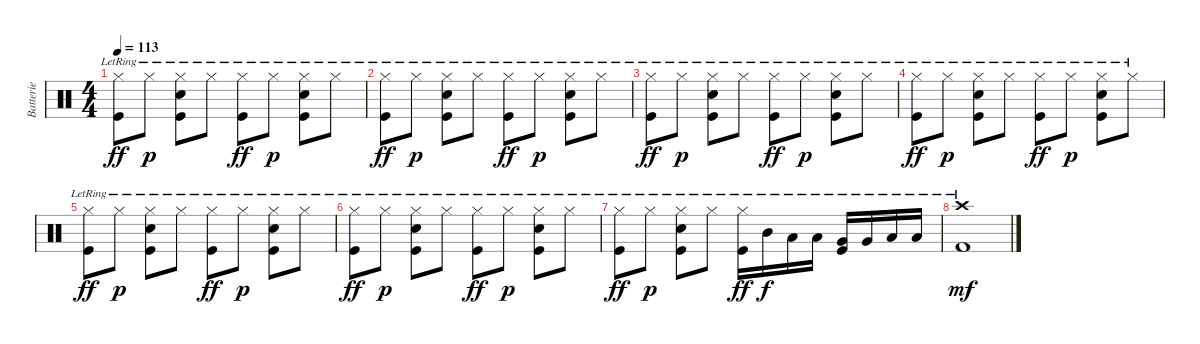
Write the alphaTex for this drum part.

\track ("Batterie" "Batterie") {instrument percussion}
\staff {score}
\articulation defaults
\ts (4 4)
\tempo 113
\clef neutral
\ks c
("Hi-Hat (closed)"{lr} "Kick (hit)"{lr}).8{dy ff} "Hi-Hat (closed)"{lr}.8{dy p} ("Hi-Hat (closed)"{lr} "Snare (hit) 2"{lr} "Kick (hit)"{lr}).8 "Hi-Hat (closed)"{lr}.8 ("Hi-Hat (closed)"{lr} "Kick (hit)"{lr}).8{dy ff} "Hi-Hat (closed)"{lr}.8{dy p} ("Hi-Hat (closed)"{lr} "Snare (hit) 2"{lr} "Kick (hit)"{lr}).8 "Hi-Hat (closed)"{lr}.8 |
("Hi-Hat (closed)"{lr} "Kick (hit)"{lr}).8{dy ff} "Hi-Hat (closed)"{lr}.8{dy p} ("Hi-Hat (closed)"{lr} "Snare (hit) 2"{lr} "Kick (hit)"{lr}).8 "Hi-Hat (closed)"{lr}.8 ("Hi-Hat (closed)"{lr} "Kick (hit)"{lr}).8{dy ff} "Hi-Hat (closed)"{lr}.8{dy p} ("Hi-Hat (closed)"{lr} "Snare (hit) 2"{lr} "Kick (hit)"{lr}).8 "Hi-Hat (closed)"{lr}.8 |
("Hi-Hat (closed)"{lr} "Kick (hit)"{lr}).8{dy ff} "Hi-Hat (closed)"{lr}.8{dy p} ("Hi-Hat (closed)"{lr} "Snare (hit) 2"{lr} "Kick (hit)"{lr}).8 "Hi-Hat (closed)"{lr}.8 ("Hi-Hat (closed)"{lr} "Kick (hit)"{lr}).8{dy ff} "Hi-Hat (closed)"{lr}.8{dy p} ("Hi-Hat (closed)"{lr} "Snare (hit) 2"{lr} "Kick (hit)"{lr}).8 "Hi-Hat (closed)"{lr}.8 |
("Hi-Hat (closed)"{lr} "Kick (hit)"{lr}).8{dy ff} "Hi-Hat (closed)"{lr}.8{dy p} ("Hi-Hat (closed)"{lr} "Snare (hit) 2"{lr} "Kick (hit)"{lr}).8 "Hi-Hat (closed)"{lr}.8 ("Hi-Hat (closed)"{lr} "Kick (hit)"{lr}).8{dy ff} "Hi-Hat (closed)"{lr}.8{dy p} ("Hi-Hat (closed)"{lr} "Snare (hit) 2"{lr} "Kick (hit)"{lr}).8 "Hi-Hat (closed)"{lr}.8 |
("Hi-Hat (closed)"{lr} "Kick (hit)"{lr}).8{dy ff} "Hi-Hat (closed)"{lr}.8{dy p} ("Hi-Hat (closed)"{lr} "Snare (hit) 2"{lr} "Kick (hit)"{lr}).8 "Hi-Hat (closed)"{lr}.8 ("Hi-Hat (closed)"{lr} "Kick (hit)"{lr}).8{dy ff} "Hi-Hat (closed)"{lr}.8{dy p} ("Hi-Hat (closed)"{lr} "Snare (hit) 2"{lr} "Kick (hit)"{lr}).8 "Hi-Hat (closed)"{lr}.8 |
("Hi-Hat (closed)"{lr} "Kick (hit)"{lr}).8{dy ff} "Hi-Hat (closed)"{lr}.8{dy p} ("Hi-Hat (closed)"{lr} "Snare (hit) 2"{lr} "Kick (hit)"{lr}).8 "Hi-Hat (closed)"{lr}.8 ("Hi-Hat (closed)"{lr} "Kick (hit)"{lr}).8{dy ff} "Hi-Hat (closed)"{lr}.8{dy p} ("Hi-Hat (closed)"{lr} "Snare (hit) 2"{lr} "Kick (hit)"{lr}).8 "Hi-Hat (closed)"{lr}.8 |
("Hi-Hat (closed)"{lr} "Kick (hit)"{lr}).8{dy ff} "Hi-Hat (closed)"{lr}.8{dy p} ("Hi-Hat (closed)"{lr} "Snare (hit) 2"{lr} "Kick (hit)"{lr}).8 "Hi-Hat (closed)"{lr}.8 ("Hi-Hat (closed)"{lr} "Kick (hit)"{lr}).16{dy ff} "Mid Tom (hit)"{lr}.16{dy f} "Low Tom (hit)"{lr}.16 "Low Tom (hit)"{lr}.16 ("Very Low Tom (hit)"{lr} "Kick (hit)"{lr}).16 "Very Low Tom (hit)"{lr}.16 "Low Floor Tom (hit)"{lr}.16 "Low Floor Tom (hit)"{lr}.16 |
("Crash high (hit)"{lr} "Kick (hit) 2"{lr}).1{dy mf}
